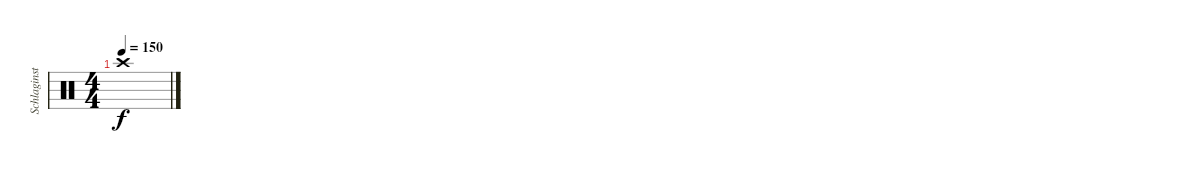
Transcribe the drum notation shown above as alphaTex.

\track ("Schlaginstrumente - Auswahl" "Schlaginst") {instrument percussion}
\staff {score}
\articulation defaults
\ts (4 4)
\tempo 150
\clef neutral
\ks c "Crash high (hit)".1{dy f}
